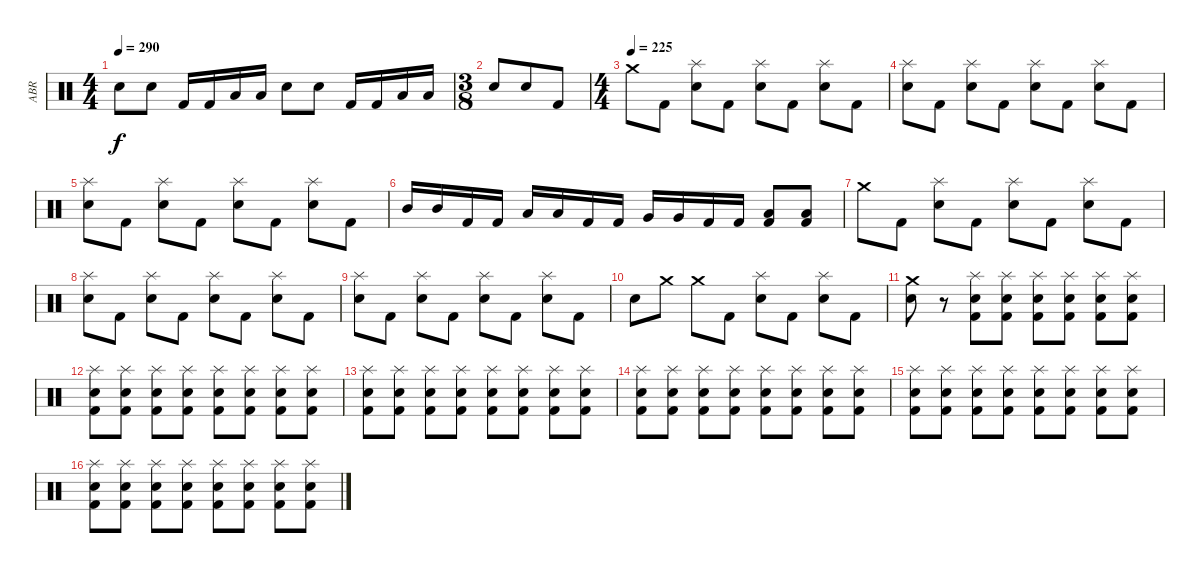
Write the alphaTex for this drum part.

\track ("ABR" "ABR") {instrument percussion}
\staff {score}
\articulation defaults
\ts (4 4)
\tempo 290
\clef neutral
\ks c "Snare (hit) 2".8{dy f} "Snare (hit) 2".8 "Kick (hit) 2".16 "Kick (hit) 2".16 "Low Floor Tom (hit)".16 "Low Floor Tom (hit)".16 "Snare (hit) 2".8 "Snare (hit) 2".8 "Kick (hit) 2".16 "Kick (hit) 2".16 "Low Floor Tom (hit)".16 "Low Floor Tom (hit)".16
|
\ts (3 8)
"Snare (hit) 2".8 "Snare (hit) 2".8 "Kick (hit) 2".8 |
\ts (4 4)
\tempo (225)
"Crash medium (hit)".8 "Kick (hit) 2".8 ("Splash (hit)" "Snare (hit) 2").8 "Kick (hit) 2".8 ("Splash (hit)" "Snare (hit) 2").8 "Kick (hit) 2".8 ("Splash (hit)" "Snare (hit) 2").8 "Kick (hit) 2".8 |
("Splash (hit)" "Snare (hit) 2").8 "Kick (hit) 2".8 ("Splash (hit)" "Snare (hit) 2").8 "Kick (hit) 2".8 ("Splash (hit)" "Snare (hit) 2").8 "Kick (hit) 2".8 ("Splash (hit)" "Snare (hit) 2").8 "Kick (hit) 2".8 |
("Splash (hit)" "Snare (hit) 2").8 "Kick (hit) 2".8 ("Splash (hit)" "Snare (hit) 2").8 "Kick (hit) 2".8 ("Splash (hit)" "Snare (hit) 2").8 "Kick (hit) 2".8 ("Splash (hit)" "Snare (hit) 2").8 "Kick (hit) 2".8 |
"Mid Tom (hit)".16 "Mid Tom (hit)".16 "Kick (hit) 2".16 "Kick (hit) 2".16 "Low Tom (hit)".16 "Low Tom (hit)".16 "Kick (hit) 2".16 "Kick (hit) 2".16 "Very Low Tom (hit)".16 "Very Low Tom (hit)".16 "Kick (hit) 2".16 "Kick (hit) 2".16 ("Low Tom (hit)" "Kick (hit) 2").8 ("Low Floor Tom (hit)" "Kick (hit) 2").8 |
"Crash medium (hit)".8 "Kick (hit) 2".8 ("Splash (hit)" "Snare (hit) 2").8 "Kick (hit) 2".8 ("Splash (hit)" "Snare (hit) 2").8 "Kick (hit) 2".8 ("Splash (hit)" "Snare (hit) 2").8 "Kick (hit) 2".8 |
("Splash (hit)" "Snare (hit) 2").8 "Kick (hit) 2".8 ("Splash (hit)" "Snare (hit) 2").8 "Kick (hit) 2".8 ("Splash (hit)" "Snare (hit) 2").8 "Kick (hit) 2".8 ("Splash (hit)" "Snare (hit) 2").8 "Kick (hit) 2".8 |
("Splash (hit)" "Snare (hit) 2").8 "Kick (hit) 2".8 ("Splash (hit)" "Snare (hit) 2").8 "Kick (hit) 2".8 ("Splash (hit)" "Snare (hit) 2").8 "Kick (hit) 2".8 ("Splash (hit)" "Snare (hit) 2").8 "Kick (hit) 2".8 |
"Snare (hit) 2".8 "Crash medium (hit)".8 "Crash medium (hit)".8 "Kick (hit) 2".8 ("Splash (hit)" "Snare (hit) 2").8 "Kick (hit) 2".8 ("Splash (hit)" "Snare (hit) 2").8 "Kick (hit) 2".8 |
("Crash medium (hit)" "Snare (hit) 2").8 r.8 ("Splash (hit)" "Snare (hit) 2" "Kick (hit) 2").8 ("Splash (hit)" "Snare (hit) 2" "Kick (hit) 2").8 ("Splash (hit)" "Snare (hit) 2" "Kick (hit) 2").8 ("Splash (hit)" "Snare (hit) 2" "Kick (hit) 2").8 ("Splash (hit)" "Snare (hit) 2" "Kick (hit) 2").8 ("Splash (hit)" "Snare (hit) 2" "Kick (hit) 2").8 |
("Splash (hit)" "Snare (hit) 2" "Kick (hit) 2").8 ("Splash (hit)" "Snare (hit) 2" "Kick (hit) 2").8 ("Splash (hit)" "Snare (hit) 2" "Kick (hit) 2").8 ("Splash (hit)" "Snare (hit) 2" "Kick (hit) 2").8 ("Splash (hit)" "Snare (hit) 2" "Kick (hit) 2").8 ("Splash (hit)" "Snare (hit) 2" "Kick (hit) 2").8 ("Splash (hit)" "Snare (hit) 2" "Kick (hit) 2").8 ("Splash (hit)" "Snare (hit) 2" "Kick (hit) 2").8 |
("Splash (hit)" "Snare (hit) 2" "Kick (hit) 2").8 ("Splash (hit)" "Snare (hit) 2" "Kick (hit) 2").8 ("Splash (hit)" "Snare (hit) 2" "Kick (hit) 2").8 ("Splash (hit)" "Snare (hit) 2" "Kick (hit) 2").8 ("Splash (hit)" "Snare (hit) 2" "Kick (hit) 2").8 ("Splash (hit)" "Snare (hit) 2" "Kick (hit) 2").8 ("Splash (hit)" "Snare (hit) 2" "Kick (hit) 2").8 ("Splash (hit)" "Snare (hit) 2" "Kick (hit) 2").8 |
("Splash (hit)" "Snare (hit) 2" "Kick (hit) 2").8 ("Splash (hit)" "Snare (hit) 2" "Kick (hit) 2").8 ("Splash (hit)" "Snare (hit) 2" "Kick (hit) 2").8 ("Splash (hit)" "Snare (hit) 2" "Kick (hit) 2").8 ("Splash (hit)" "Snare (hit) 2" "Kick (hit) 2").8 ("Splash (hit)" "Snare (hit) 2" "Kick (hit) 2").8 ("Splash (hit)" "Snare (hit) 2" "Kick (hit) 2").8 ("Splash (hit)" "Snare (hit) 2" "Kick (hit) 2").8 |
("Splash (hit)" "Snare (hit) 2" "Kick (hit) 2").8 ("Splash (hit)" "Snare (hit) 2" "Kick (hit) 2").8 ("Splash (hit)" "Snare (hit) 2" "Kick (hit) 2").8 ("Splash (hit)" "Snare (hit) 2" "Kick (hit) 2").8 ("Splash (hit)" "Snare (hit) 2" "Kick (hit) 2").8 ("Splash (hit)" "Snare (hit) 2" "Kick (hit) 2").8 ("Splash (hit)" "Snare (hit) 2" "Kick (hit) 2").8 ("Splash (hit)" "Snare (hit) 2" "Kick (hit) 2").8 |
("Splash (hit)" "Snare (hit) 2" "Kick (hit) 2").8 ("Splash (hit)" "Snare (hit) 2" "Kick (hit) 2").8 ("Splash (hit)" "Snare (hit) 2" "Kick (hit) 2").8 ("Splash (hit)" "Snare (hit) 2" "Kick (hit) 2").8 ("Splash (hit)" "Snare (hit) 2" "Kick (hit) 2").8 ("Splash (hit)" "Snare (hit) 2" "Kick (hit) 2").8 ("Splash (hit)" "Snare (hit) 2" "Kick (hit) 2").8 ("Splash (hit)" "Snare (hit) 2" "Kick (hit) 2").8
